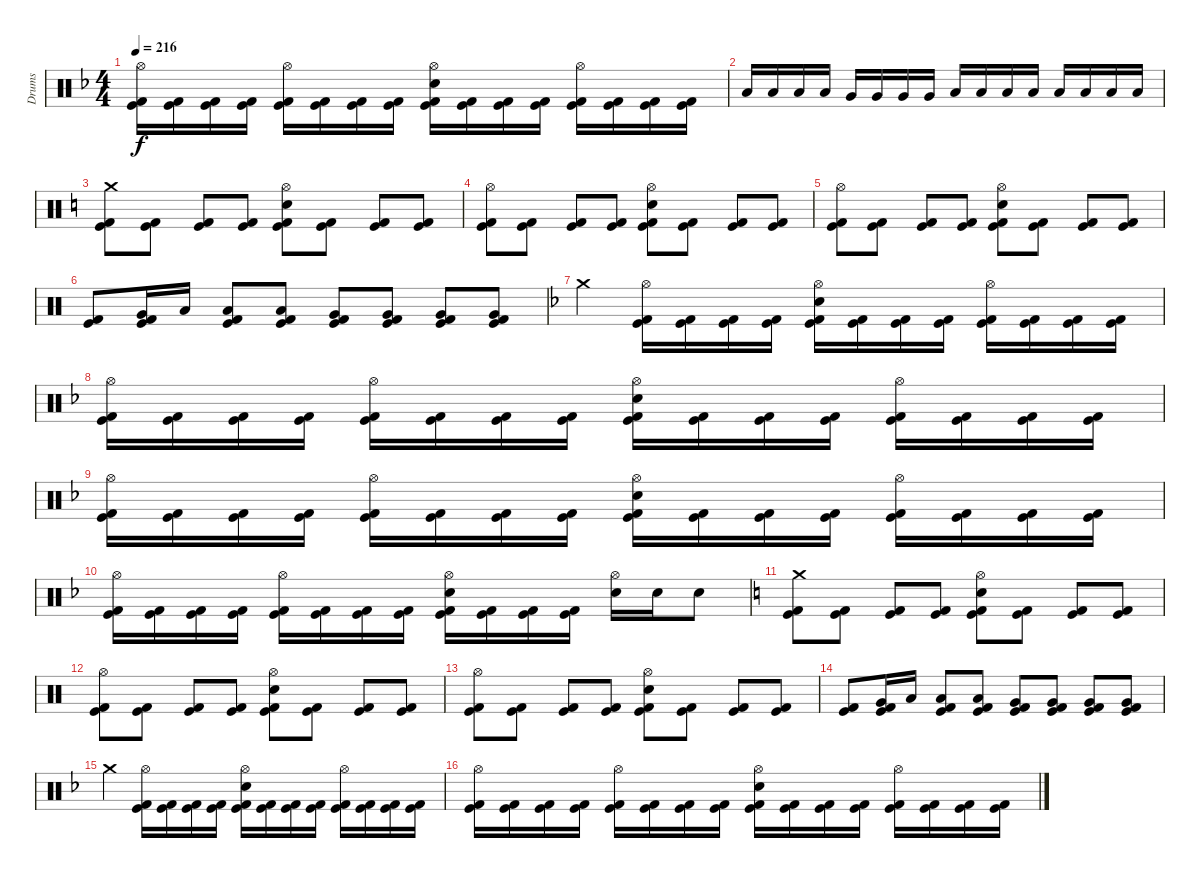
\track ("Drums" "Drums") {instrument percussion}
\staff {score}
\articulation defaults
\ts (4 4)
\tempo 216
\clef neutral
\ks f
("Hi-Hat (open)" "Kick (hit)" "Kick (hit) 2").16{dy f} ("Kick (hit)" "Kick (hit) 2").16 ("Kick (hit)" "Kick (hit) 2").16 ("Kick (hit)" "Kick (hit) 2").16 ("Hi-Hat (open)" "Kick (hit)" "Kick (hit) 2").16 ("Kick (hit)" "Kick (hit) 2").16 ("Kick (hit)" "Kick (hit) 2").16 ("Kick (hit)" "Kick (hit) 2").16 ("Hi-Hat (open)" "Electric Snare (hit)" "Kick (hit)" "Kick (hit) 2").16 ("Kick (hit)" "Kick (hit) 2").16 ("Kick (hit)" "Kick (hit) 2").16 ("Kick (hit)" "Kick (hit) 2").16 ("Hi-Hat (open)" "Kick (hit)" "Kick (hit) 2").16 ("Kick (hit)" "Kick (hit) 2").16 ("Kick (hit)" "Kick (hit) 2").16 ("Kick (hit)" "Kick (hit) 2").16 |
"Low Tom (hit)".16 "Low Tom (hit)".16 "Low Tom (hit)".16 "Low Tom (hit)".16 "Very Low Tom (hit)".16 "Very Low Tom (hit)".16 "Very Low Tom (hit)".16 "Very Low Tom (hit)".16 "Low Tom (hit)".16 "Low Tom (hit)".16 "Low Tom (hit)".16 "Low Tom (hit)".16 "Low Floor Tom (hit)".16 "Low Floor Tom (hit)".16 "Low Floor Tom (hit)".16 "Low Floor Tom (hit)".16 |
\ks c
("Crash medium (hit)" "Kick (hit)" "Kick (hit) 2").8 ("Kick (hit)" "Kick (hit) 2").8 ("Kick (hit)" "Kick (hit) 2").8 ("Kick (hit)" "Kick (hit) 2").8 ("Hi-Hat (open)" "Electric Snare (hit)" "Kick (hit)" "Kick (hit) 2").8 ("Kick (hit)" "Kick (hit) 2").8 ("Kick (hit)" "Kick (hit) 2").8 ("Kick (hit)" "Kick (hit) 2").8 |
("Hi-Hat (open)" "Kick (hit)" "Kick (hit) 2").8 ("Kick (hit)" "Kick (hit) 2").8 ("Kick (hit)" "Kick (hit) 2").8 ("Kick (hit)" "Kick (hit) 2").8 ("Hi-Hat (open)" "Electric Snare (hit)" "Kick (hit)" "Kick (hit) 2").8 ("Kick (hit)" "Kick (hit) 2").8 ("Kick (hit)" "Kick (hit) 2").8 ("Kick (hit)" "Kick (hit) 2").8 |
("Hi-Hat (open)" "Kick (hit)" "Kick (hit) 2").8 ("Kick (hit)" "Kick (hit) 2").8 ("Kick (hit)" "Kick (hit) 2").8 ("Kick (hit)" "Kick (hit) 2").8 ("Hi-Hat (open)" "Electric Snare (hit)" "Kick (hit)" "Kick (hit) 2").8 ("Kick (hit)" "Kick (hit) 2").8 ("Kick (hit)" "Kick (hit) 2").8 ("Kick (hit)" "Kick (hit) 2").8 |
("Kick (hit)" "Kick (hit) 2").8 ("Very Low Tom (hit)" "Kick (hit)" "Kick (hit) 2").16 "Low Tom (hit)".16 ("Low Tom (hit)" "Kick (hit)" "Kick (hit) 2").8 ("Low Tom (hit)" "Kick (hit)" "Kick (hit) 2").8 ("Very Low Tom (hit)" "Kick (hit)" "Kick (hit) 2").8 ("Very Low Tom (hit)" "Kick (hit)" "Kick (hit) 2").8 ("Very Low Tom (hit)" "Kick (hit)" "Kick (hit) 2").8 ("Very Low Tom (hit)" "Kick (hit)" "Kick (hit) 2").8 |
\ks f "Crash medium (hit)".4
("Hi-Hat (open)" "Kick (hit)" "Kick (hit) 2").16 ("Kick (hit)" "Kick (hit) 2").16 ("Kick (hit)" "Kick (hit) 2").16 ("Kick (hit)" "Kick (hit) 2").16 ("Hi-Hat (open)" "Electric Snare (hit)" "Kick (hit)" "Kick (hit) 2").16 ("Kick (hit)" "Kick (hit) 2").16 ("Kick (hit)" "Kick (hit) 2").16 ("Kick (hit)" "Kick (hit) 2").16 ("Hi-Hat (open)" "Kick (hit)" "Kick (hit) 2").16 ("Kick (hit)" "Kick (hit) 2").16 ("Kick (hit)" "Kick (hit) 2").16 ("Kick (hit)" "Kick (hit) 2").16 |
("Hi-Hat (open)" "Kick (hit)" "Kick (hit) 2").16 ("Kick (hit)" "Kick (hit) 2").16 ("Kick (hit)" "Kick (hit) 2").16 ("Kick (hit)" "Kick (hit) 2").16 ("Hi-Hat (open)" "Kick (hit)" "Kick (hit) 2").16 ("Kick (hit)" "Kick (hit) 2").16 ("Kick (hit)" "Kick (hit) 2").16 ("Kick (hit)" "Kick (hit) 2").16 ("Hi-Hat (open)" "Electric Snare (hit)" "Kick (hit)" "Kick (hit) 2").16 ("Kick (hit)" "Kick (hit) 2").16 ("Kick (hit)" "Kick (hit) 2").16 ("Kick (hit)" "Kick (hit) 2").16 ("Hi-Hat (open)" "Kick (hit)" "Kick (hit) 2").16 ("Kick (hit)" "Kick (hit) 2").16 ("Kick (hit)" "Kick (hit) 2").16 ("Kick (hit)" "Kick (hit) 2").16 |
("Hi-Hat (open)" "Kick (hit)" "Kick (hit) 2").16 ("Kick (hit)" "Kick (hit) 2").16 ("Kick (hit)" "Kick (hit) 2").16 ("Kick (hit)" "Kick (hit) 2").16 ("Hi-Hat (open)" "Kick (hit)" "Kick (hit) 2").16 ("Kick (hit)" "Kick (hit) 2").16 ("Kick (hit)" "Kick (hit) 2").16 ("Kick (hit)" "Kick (hit) 2").16 ("Hi-Hat (open)" "Electric Snare (hit)" "Kick (hit)" "Kick (hit) 2").16 ("Kick (hit)" "Kick (hit) 2").16 ("Kick (hit)" "Kick (hit) 2").16 ("Kick (hit)" "Kick (hit) 2").16 ("Hi-Hat (open)" "Kick (hit)" "Kick (hit) 2").16 ("Kick (hit)" "Kick (hit) 2").16 ("Kick (hit)" "Kick (hit) 2").16 ("Kick (hit)" "Kick (hit) 2").16 |
("Hi-Hat (open)" "Kick (hit)" "Kick (hit) 2").16 ("Kick (hit)" "Kick (hit) 2").16 ("Kick (hit)" "Kick (hit) 2").16 ("Kick (hit)" "Kick (hit) 2").16 ("Hi-Hat (open)" "Kick (hit)" "Kick (hit) 2").16 ("Kick (hit)" "Kick (hit) 2").16 ("Kick (hit)" "Kick (hit) 2").16 ("Kick (hit)" "Kick (hit) 2").16 ("Hi-Hat (open)" "Electric Snare (hit)" "Kick (hit)" "Kick (hit) 2").16 ("Kick (hit)" "Kick (hit) 2").16 ("Kick (hit)" "Kick (hit) 2").16 ("Kick (hit)" "Kick (hit) 2").16 ("Hi-Hat (open)" "Electric Snare (hit)").16 "Electric Snare (hit)".16 "Electric Snare (hit)".8 |
\ks c
("Crash medium (hit)" "Kick (hit)" "Kick (hit) 2").8 ("Kick (hit)" "Kick (hit) 2").8 ("Kick (hit)" "Kick (hit) 2").8 ("Kick (hit)" "Kick (hit) 2").8 ("Hi-Hat (open)" "Electric Snare (hit)" "Kick (hit)" "Kick (hit) 2").8 ("Kick (hit)" "Kick (hit) 2").8 ("Kick (hit)" "Kick (hit) 2").8 ("Kick (hit)" "Kick (hit) 2").8 |
("Hi-Hat (open)" "Kick (hit)" "Kick (hit) 2").8 ("Kick (hit)" "Kick (hit) 2").8 ("Kick (hit)" "Kick (hit) 2").8 ("Kick (hit)" "Kick (hit) 2").8 ("Hi-Hat (open)" "Electric Snare (hit)" "Kick (hit)" "Kick (hit) 2").8 ("Kick (hit)" "Kick (hit) 2").8 ("Kick (hit)" "Kick (hit) 2").8 ("Kick (hit)" "Kick (hit) 2").8 |
("Hi-Hat (open)" "Kick (hit)" "Kick (hit) 2").8 ("Kick (hit)" "Kick (hit) 2").8 ("Kick (hit)" "Kick (hit) 2").8 ("Kick (hit)" "Kick (hit) 2").8 ("Hi-Hat (open)" "Electric Snare (hit)" "Kick (hit)" "Kick (hit) 2").8 ("Kick (hit)" "Kick (hit) 2").8 ("Kick (hit)" "Kick (hit) 2").8 ("Kick (hit)" "Kick (hit) 2").8 |
("Kick (hit)" "Kick (hit) 2").8 ("Very Low Tom (hit)" "Kick (hit)" "Kick (hit) 2").16 "Low Tom (hit)".16 ("Low Tom (hit)" "Kick (hit)" "Kick (hit) 2").8 ("Low Tom (hit)" "Kick (hit)" "Kick (hit) 2").8 ("Very Low Tom (hit)" "Kick (hit)" "Kick (hit) 2").8 ("Very Low Tom (hit)" "Kick (hit)" "Kick (hit) 2").8 ("Very Low Tom (hit)" "Kick (hit)" "Kick (hit) 2").8 ("Very Low Tom (hit)" "Kick (hit)" "Kick (hit) 2").8 |
\ks f "Crash medium (hit)".4
("Hi-Hat (open)" "Kick (hit)" "Kick (hit) 2").16 ("Kick (hit)" "Kick (hit) 2").16 ("Kick (hit)" "Kick (hit) 2").16 ("Kick (hit)" "Kick (hit) 2").16 ("Hi-Hat (open)" "Electric Snare (hit)" "Kick (hit)" "Kick (hit) 2").16 ("Kick (hit)" "Kick (hit) 2").16 ("Kick (hit)" "Kick (hit) 2").16 ("Kick (hit)" "Kick (hit) 2").16 ("Hi-Hat (open)" "Kick (hit)" "Kick (hit) 2").16 ("Kick (hit)" "Kick (hit) 2").16 ("Kick (hit)" "Kick (hit) 2").16 ("Kick (hit)" "Kick (hit) 2").16 |
("Hi-Hat (open)" "Kick (hit)" "Kick (hit) 2").16 ("Kick (hit)" "Kick (hit) 2").16 ("Kick (hit)" "Kick (hit) 2").16 ("Kick (hit)" "Kick (hit) 2").16 ("Hi-Hat (open)" "Kick (hit)" "Kick (hit) 2").16 ("Kick (hit)" "Kick (hit) 2").16 ("Kick (hit)" "Kick (hit) 2").16 ("Kick (hit)" "Kick (hit) 2").16 ("Hi-Hat (open)" "Electric Snare (hit)" "Kick (hit)" "Kick (hit) 2").16 ("Kick (hit)" "Kick (hit) 2").16 ("Kick (hit)" "Kick (hit) 2").16 ("Kick (hit)" "Kick (hit) 2").16 ("Hi-Hat (open)" "Kick (hit)" "Kick (hit) 2").16 ("Kick (hit)" "Kick (hit) 2").16 ("Kick (hit)" "Kick (hit) 2").16 ("Kick (hit)" "Kick (hit) 2").16
